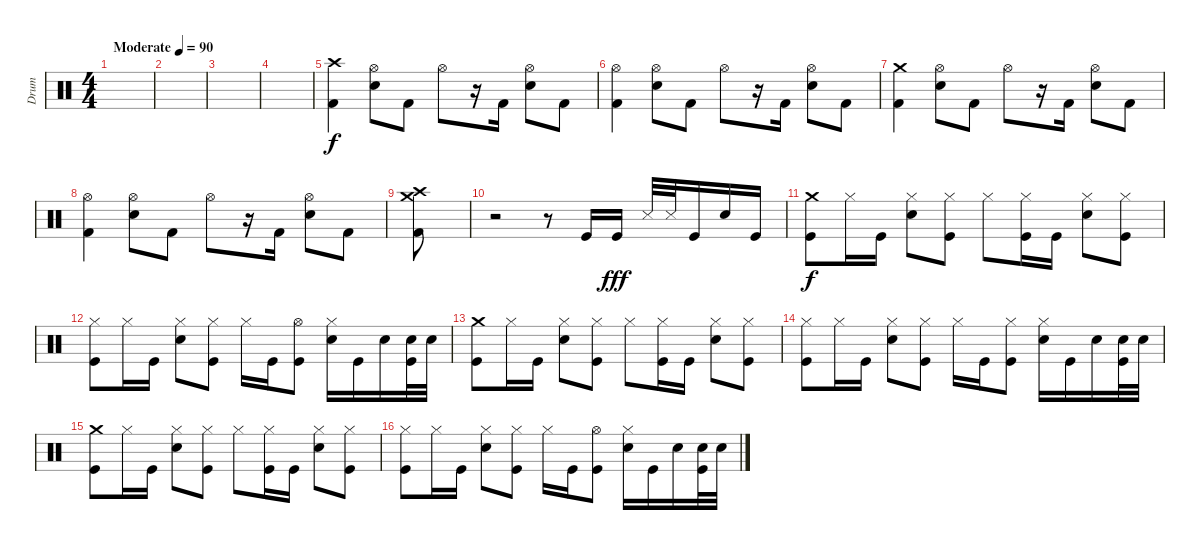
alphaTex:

\track ("Drum" "Drum") {instrument percussion}
\staff {score}
\articulation defaults
\ts (4 4)
\tempo (90 "Moderate")
\clef neutral
\ks c
|
|
|
|
("Crash high (hit)" "Kick (hit) 2").4 ("Hi-Hat (open)" "Electric Snare (hit)").8 "Kick (hit) 2".8 "Hi-Hat (open)".8 r.16 "Kick (hit) 2".16 ("Hi-Hat (open)" "Electric Snare (hit)").8 "Kick (hit) 2".8 |
("Hi-Hat (open)" "Kick (hit) 2").4 ("Hi-Hat (open)" "Electric Snare (hit)").8 "Kick (hit) 2".8 "Hi-Hat (open)".8 r.16 "Kick (hit) 2".16 ("Hi-Hat (open)" "Electric Snare (hit)").8 "Kick (hit) 2".8 |
("Crash medium (hit)" "Kick (hit) 2").4 ("Hi-Hat (open)" "Electric Snare (hit)").8 "Kick (hit) 2".8 "Hi-Hat (open)".8 r.16 "Kick (hit) 2".16 ("Hi-Hat (open)" "Electric Snare (hit)").8 "Kick (hit) 2".8 |
("Hi-Hat (open)" "Kick (hit) 2").4 ("Hi-Hat (open)" "Electric Snare (hit)").8 "Kick (hit) 2".8 "Hi-Hat (open)".8 r.16 "Kick (hit) 2".16 ("Hi-Hat (open)" "Electric Snare (hit)").8 "Kick (hit) 2".8 |
("Crash high (hit)" "Crash medium (hit)" "Kick (hit) 2").8 |
r.2 r.8 "Kick (hit)".16 "Kick (hit)".16{dy fff} "Snare (side stick) 3".32 "Snare (side stick) 3".32 "Kick (hit)".16 "Snare (hit) 2".16 "Kick (hit)".16 |
("Crash medium (hit)" "Kick (hit)").8{dy f} "Hi-Hat (closed)".16 "Kick (hit)".16 ("Hi-Hat (closed)" "Snare (hit) 2").8 ("Hi-Hat (closed)" "Kick (hit)").8 "Hi-Hat (closed)".8 ("Hi-Hat (closed)" "Kick (hit)").16 "Kick (hit)".16 ("Hi-Hat (closed)" "Snare (hit) 2").8 ("Hi-Hat (closed)" "Kick (hit)").8 |
("Hi-Hat (closed)" "Kick (hit)").8 "Hi-Hat (closed)".16 "Kick (hit)".16 ("Hi-Hat (closed)" "Snare (hit) 2").8 ("Hi-Hat (closed)" "Kick (hit)").8 "Hi-Hat (closed)".16 "Kick (hit)".16 ("Hi-Hat (open)" "Kick (hit)").8 ("Hi-Hat (closed)" "Snare (hit) 2").16 "Kick (hit)".16 "Snare (hit) 2".16 ("Snare (hit) 2" "Kick (hit)").32 "Snare (hit) 2".32 |
("Crash medium (hit)" "Kick (hit)").8 "Hi-Hat (closed)".16 "Kick (hit)".16 ("Hi-Hat (closed)" "Snare (hit) 2").8 ("Hi-Hat (closed)" "Kick (hit)").8 "Hi-Hat (closed)".8 ("Hi-Hat (closed)" "Kick (hit)").16 "Kick (hit)".16 ("Hi-Hat (closed)" "Snare (hit) 2").8 ("Hi-Hat (closed)" "Kick (hit)").8 |
("Hi-Hat (closed)" "Kick (hit)").8 "Hi-Hat (closed)".16 "Kick (hit)".16 ("Hi-Hat (closed)" "Snare (hit) 2").8 ("Hi-Hat (closed)" "Kick (hit)").8 "Hi-Hat (closed)".16 "Kick (hit)".16 ("Hi-Hat (closed)" "Kick (hit)").8 ("Hi-Hat (closed)" "Snare (hit) 2").16 "Kick (hit)".16 "Snare (hit) 2".16 ("Snare (hit) 2" "Kick (hit)").32 "Snare (hit) 2".32 |
("Crash medium (hit)" "Kick (hit)").8 "Hi-Hat (closed)".16 "Kick (hit)".16 ("Hi-Hat (closed)" "Snare (hit) 2").8 ("Hi-Hat (closed)" "Kick (hit)").8 "Hi-Hat (closed)".8 ("Hi-Hat (closed)" "Kick (hit)").16 "Kick (hit)".16 ("Hi-Hat (closed)" "Snare (hit) 2").8 ("Hi-Hat (closed)" "Kick (hit)").8 |
("Hi-Hat (closed)" "Kick (hit)").8 "Hi-Hat (closed)".16 "Kick (hit)".16 ("Hi-Hat (closed)" "Snare (hit) 2").8 ("Hi-Hat (closed)" "Kick (hit)").8 "Hi-Hat (closed)".16 "Kick (hit)".16 ("Hi-Hat (open)" "Kick (hit)").8 ("Hi-Hat (closed)" "Snare (hit) 2").16 "Kick (hit)".16 "Snare (hit) 2".16 ("Snare (hit) 2" "Kick (hit)").32 "Snare (hit) 2".32
